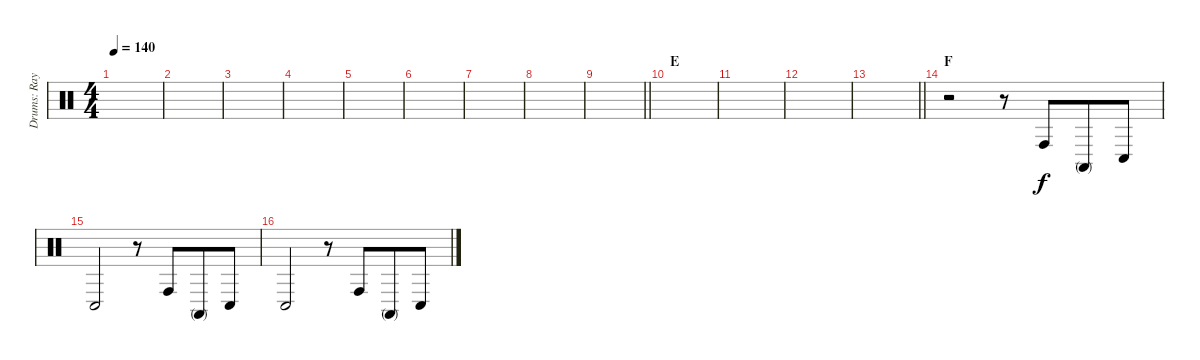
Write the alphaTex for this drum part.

\track ("Drums: Ray Cooper" "Drums: Ray") {instrument percussion}
\staff {score}
\articulation defaults
\ts (4 4)
\tempo 140
\clef neutral
\ks c
|
|
|
|
|
|
|
|
\barLineRight lightlight
|
\section ("" "E")
|
|
|
\barLineRight lightlight
|
\section ("" "F")
r.2 r.8 "Conga high (hit)".8{beam merge} "Conga high (mute)".8 "Conga low (hit)".8 |
"Conga low (hit)".2 r.8 "Conga high (hit)".8{beam merge} "Conga high (mute)".8 "Conga low (hit)".8 |
"Conga low (hit)".2 r.8 "Conga high (hit)".8{beam merge} "Conga high (mute)".8 "Conga low (hit)".8
